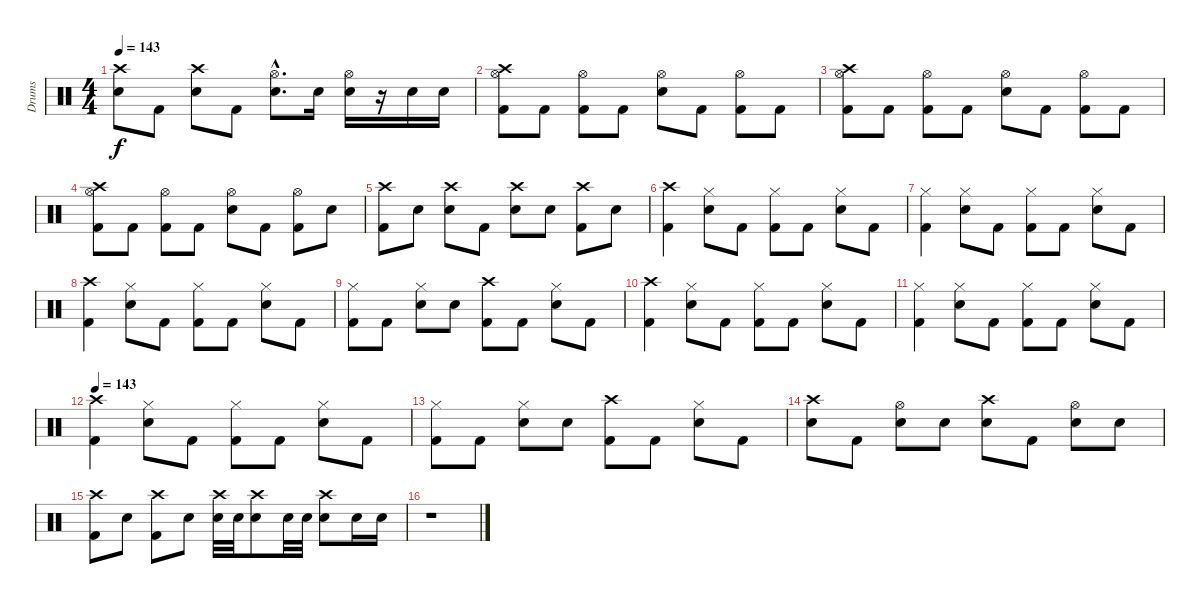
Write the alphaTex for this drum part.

\track ("Drums" "Drums") {instrument percussion}
\staff {score}
\articulation defaults
\ts (4 4)
\tempo 143
\clef neutral
\ks c
("Crash high (hit)" "Electric Snare (hit)").8{dy f} "Kick (hit) 2".8 ("Crash high (hit)" "Electric Snare (hit)").8 "Kick (hit) 2".8 ("Hi-Hat (open)"{hac} "Electric Snare (hit)"{hac}).8{d} "Electric Snare (hit)".16 ("Hi-Hat (open)" "Electric Snare (hit)").16 r.16 "Electric Snare (hit)".16 "Electric Snare (hit)".16 |
("Crash high (hit)" "Hi-Hat (open)" "Kick (hit) 2").8 "Kick (hit) 2".8 ("Hi-Hat (open)" "Kick (hit) 2").8 "Kick (hit) 2".8 ("Hi-Hat (open)" "Electric Snare (hit)").8 "Kick (hit) 2".8 ("Hi-Hat (open)" "Kick (hit) 2").8 "Kick (hit) 2".8 |
("Crash high (hit)" "Hi-Hat (open)" "Kick (hit) 2").8 "Kick (hit) 2".8 ("Hi-Hat (open)" "Kick (hit) 2").8 "Kick (hit) 2".8 ("Hi-Hat (open)" "Electric Snare (hit)").8 "Kick (hit) 2".8 ("Hi-Hat (open)" "Kick (hit) 2").8 "Kick (hit) 2".8 |
("Crash high (hit)" "Hi-Hat (open)" "Kick (hit) 2").8 "Kick (hit) 2".8 ("Hi-Hat (open)" "Kick (hit) 2").8 "Kick (hit) 2".8 ("Hi-Hat (open)" "Electric Snare (hit)").8 "Kick (hit) 2".8 ("Hi-Hat (open)" "Kick (hit) 2").8 "Electric Snare (hit)".8 |
("Crash high (hit)" "Kick (hit) 2").8 "Electric Snare (hit)".8 ("Crash high (hit)" "Electric Snare (hit)").8 "Kick (hit) 2".8 ("Crash high (hit)" "Electric Snare (hit)").8 "Electric Snare (hit)".8 ("Crash high (hit)" "Kick (hit) 2").8 "Electric Snare (hit)".8 |
("Crash high (hit)" "Kick (hit) 2").4 ("Hi-Hat (closed)" "Electric Snare (hit)").8 "Kick (hit) 2".8 ("Hi-Hat (closed)" "Kick (hit) 2").8 "Kick (hit) 2".8 ("Hi-Hat (closed)" "Electric Snare (hit)").8 "Kick (hit) 2".8 |
("Hi-Hat (closed)" "Kick (hit) 2").4 ("Hi-Hat (closed)" "Electric Snare (hit)").8 "Kick (hit) 2".8 ("Hi-Hat (closed)" "Kick (hit) 2").8 "Kick (hit) 2".8 ("Hi-Hat (closed)" "Electric Snare (hit)").8 "Kick (hit) 2".8 |
("Crash high (hit)" "Kick (hit) 2").4 ("Hi-Hat (closed)" "Electric Snare (hit)").8 "Kick (hit) 2".8 ("Hi-Hat (closed)" "Kick (hit) 2").8 "Kick (hit) 2".8 ("Hi-Hat (closed)" "Electric Snare (hit)").8 "Kick (hit) 2".8 |
("Hi-Hat (closed)" "Kick (hit) 2").8 "Kick (hit) 2".8 ("Hi-Hat (closed)" "Electric Snare (hit)").8 "Electric Snare (hit)".8 ("Crash high (hit)" "Kick (hit) 2").8 "Kick (hit) 2".8 ("Hi-Hat (closed)" "Electric Snare (hit)").8 "Kick (hit) 2".8 |
("Crash high (hit)" "Kick (hit) 2").4 ("Hi-Hat (closed)" "Electric Snare (hit)").8 "Kick (hit) 2".8 ("Hi-Hat (closed)" "Kick (hit) 2").8 "Kick (hit) 2".8 ("Hi-Hat (closed)" "Electric Snare (hit)").8 "Kick (hit) 2".8 |
("Hi-Hat (closed)" "Kick (hit) 2").4 ("Hi-Hat (closed)" "Electric Snare (hit)").8 "Kick (hit) 2".8 ("Hi-Hat (closed)" "Kick (hit) 2").8 "Kick (hit) 2".8 ("Hi-Hat (closed)" "Electric Snare (hit)").8 "Kick (hit) 2".8 |
\tempo 143
("Crash high (hit)" "Kick (hit) 2").4 ("Hi-Hat (closed)" "Electric Snare (hit)").8 "Kick (hit) 2".8 ("Hi-Hat (closed)" "Kick (hit) 2").8 "Kick (hit) 2".8 ("Hi-Hat (closed)" "Electric Snare (hit)").8 "Kick (hit) 2".8 |
("Hi-Hat (closed)" "Kick (hit) 2").8 "Kick (hit) 2".8 ("Hi-Hat (closed)" "Electric Snare (hit)").8 "Electric Snare (hit)".8 ("Crash high (hit)" "Kick (hit) 2").8 "Kick (hit) 2".8 ("Hi-Hat (closed)" "Electric Snare (hit)").8 "Kick (hit) 2".8 |
("Crash high (hit)" "Electric Snare (hit)").8 "Kick (hit) 2".8 ("Hi-Hat (open)" "Electric Snare (hit)").8 "Electric Snare (hit)".8 ("Crash high (hit)" "Electric Snare (hit)").8 "Kick (hit) 2".8 ("Hi-Hat (open)" "Electric Snare (hit)").8 "Electric Snare (hit)".8 |
("Crash high (hit)" "Kick (hit) 2").8 "Electric Snare (hit)".8 ("Crash high (hit)" "Kick (hit) 2").8 "Electric Snare (hit)".8 ("Crash high (hit)" "Electric Snare (hit)").32 "Electric Snare (hit)".32 ("Crash high (hit)" "Electric Snare (hit)").8 "Electric Snare (hit)".32 "Electric Snare (hit)".32 ("Crash high (hit)" "Electric Snare (hit)").8 "Electric Snare (hit)".16 "Electric Snare (hit)".16 |
r.1
